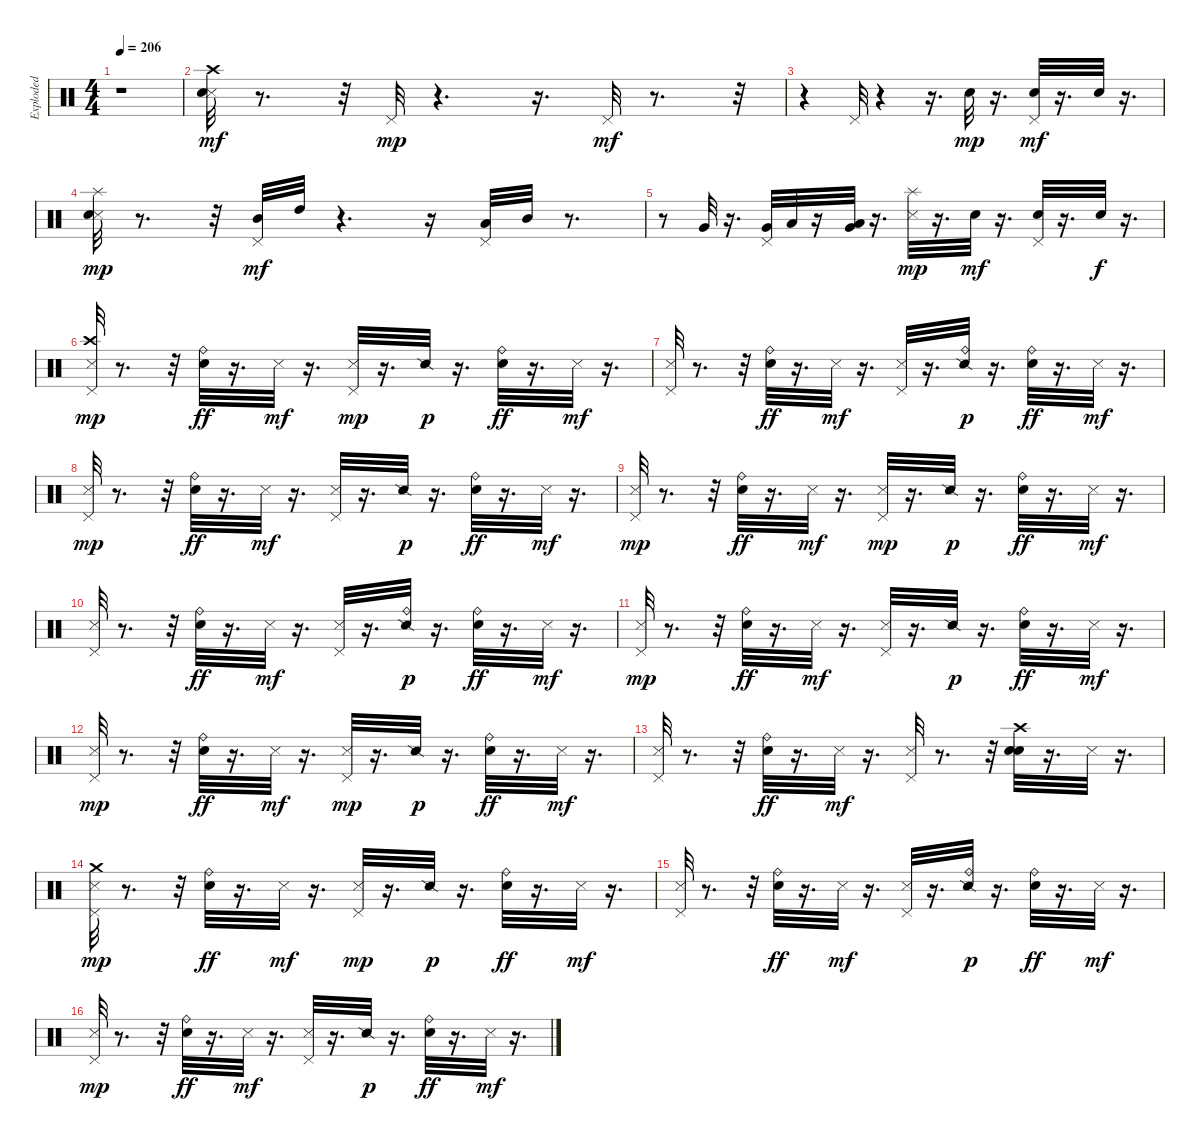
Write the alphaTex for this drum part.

\track ("Exploded" "Exploded") {instrument percussion}
\staff {score}
\articulation defaults
\ts (4 4)
\tempo 206
\clef neutral
\ks c
r.1{dy mf} |
("Metronome (hit)" "Electric Snare (hit)" "Crash high (hit)").32 r.8{d} r.32 "Pedal Hi-Hat (hit)".32{dy mp} r.4{d} r.16{d} "Pedal Hi-Hat (hit)".32{dy mf} r.8{d} r.32 |
r.4 "Pedal Hi-Hat (hit)".32 r.4 r.16{d} "Electric Snare (hit)".32{dy mp} r.16{d} ("Electric Snare (hit)" "Pedal Hi-Hat (hit)").32{dy mf} r.16{d} "Electric Snare (hit)".32 r.16{d} |
("Metronome (hit)" "Electric Snare (hit)" "Splash (hit)").32{dy mp} r.8{d} r.32 ("Pedal Hi-Hat (hit)" "Mid Tom (hit)").32{dy mf} "High Tom (hit)".32 r.4{d} r.16 ("Pedal Hi-Hat (hit)" "Low Tom (hit)").32 "Mid Tom (hit)".32 r.8{d} |
r.8 "Very Low Tom (hit)".32 r.16{d} ("Very Low Tom (hit)" "Pedal Hi-Hat (hit)").32 "Low Tom (hit)".32 r.16 ("Very Low Tom (hit)" "Low Tom (hit)").32 r.16{d} ("Metronome (hit)" "Splash (hit)").32{dy mp} r.16{d} "Electric Snare (hit)".32{dy mf} r.16{d} ("Electric Snare (hit)" "Pedal Hi-Hat (hit)").32 r.16{d} "Electric Snare (hit)".32{dy f} r.16{d} |
("Crash high (hit)" "Metronome (hit)" "Pedal Hi-Hat (hit)").32{dy mp} r.8{d} r.32 ("Electric Snare (hit)" "Ride (bell)").32{dy ff} r.16{d} "Metronome (hit)".32{dy mf} r.16{d} ("Metronome (hit)" "Pedal Hi-Hat (hit)").32{dy mp} r.16{d} "Snare (side stick) 2".32{dy p} r.16{d} ("Electric Snare (hit)" "Ride (bell)").32{dy ff} r.16{d} "Metronome (hit)".32{dy mf} r.16{d} |
("Metronome (hit)" "Pedal Hi-Hat (hit)").32 r.8{d} r.32 ("Electric Snare (hit)" "Ride (bell)").32{dy ff} r.16{d} "Metronome (hit)".32{dy mf} r.16{d} ("Metronome (hit)" "Pedal Hi-Hat (hit)").32 r.16{d} ("Snare (side stick) 2" "Ride (bell)").32{dy p} r.16{d} ("Electric Snare (hit)" "Ride (bell)").32{dy ff} r.16{d} "Metronome (hit)".32{dy mf} r.16{d} |
("Metronome (hit)" "Pedal Hi-Hat (hit)").32{dy mp} r.8{d} r.32 ("Electric Snare (hit)" "Ride (bell)").32{dy ff} r.16{d} "Metronome (hit)".32{dy mf} r.16{d} ("Metronome (hit)" "Pedal Hi-Hat (hit)").32 r.16{d} "Snare (side stick) 2".32{dy p} r.16{d} ("Electric Snare (hit)" "Ride (bell)").32{dy ff} r.16{d} "Metronome (hit)".32{dy mf} r.16{d} |
("Metronome (hit)" "Pedal Hi-Hat (hit)").32{dy mp} r.8{d} r.32 ("Electric Snare (hit)" "Ride (bell)").32{dy ff} r.16{d} "Metronome (hit)".32{dy mf} r.16{d} ("Metronome (hit)" "Pedal Hi-Hat (hit)").32{dy mp} r.16{d} "Snare (side stick) 2".32{dy p} r.16{d} ("Electric Snare (hit)" "Ride (bell)").32{dy ff} r.16{d} "Metronome (hit)".32{dy mf} r.16{d} |
("Metronome (hit)" "Pedal Hi-Hat (hit)").32 r.8{d} r.32 ("Electric Snare (hit)" "Ride (bell)").32{dy ff} r.16{d} "Metronome (hit)".32{dy mf} r.16{d} ("Metronome (hit)" "Pedal Hi-Hat (hit)").32 r.16{d} ("Snare (side stick) 2" "Ride (bell)").32{dy p} r.16{d} ("Electric Snare (hit)" "Ride (bell)").32{dy ff} r.16{d} "Metronome (hit)".32{dy mf} r.16{d} |
("Metronome (hit)" "Pedal Hi-Hat (hit)").32{dy mp} r.8{d} r.32 ("Electric Snare (hit)" "Ride (bell)").32{dy ff} r.16{d} "Metronome (hit)".32{dy mf} r.16{d} ("Metronome (hit)" "Pedal Hi-Hat (hit)").32 r.16{d} "Snare (side stick) 2".32{dy p} r.16{d} ("Electric Snare (hit)" "Ride (bell)").32{dy ff} r.16{d} "Metronome (hit)".32{dy mf} r.16{d} |
("Metronome (hit)" "Pedal Hi-Hat (hit)").32{dy mp} r.8{d} r.32 ("Electric Snare (hit)" "Ride (bell)").32{dy ff} r.16{d} "Metronome (hit)".32{dy mf} r.16{d} ("Metronome (hit)" "Pedal Hi-Hat (hit)").32{dy mp} r.16{d} "Snare (side stick) 2".32{dy p} r.16{d} ("Electric Snare (hit)" "Ride (bell)").32{dy ff} r.16{d} "Metronome (hit)".32{dy mf} r.16{d} |
("Metronome (hit)" "Pedal Hi-Hat (hit)").32 r.8{d} r.32 ("Electric Snare (hit)" "Ride (bell)").32{dy ff} r.16{d} "Metronome (hit)".32{dy mf} r.16{d} ("Metronome (hit)" "Pedal Hi-Hat (hit)").32 r.8{d} r.32 ("Metronome (bell)" "Electric Snare (hit)" "Crash high (hit)").32 r.16{d} "Metronome (hit)".32 r.16{d} |
("Crash medium (hit)" "Metronome (hit)" "Pedal Hi-Hat (hit)").32{dy mp} r.8{d} r.32 ("Electric Snare (hit)" "Ride (bell)").32{dy ff} r.16{d} "Metronome (hit)".32{dy mf} r.16{d} ("Metronome (hit)" "Pedal Hi-Hat (hit)").32{dy mp} r.16{d} "Snare (side stick) 2".32{dy p} r.16{d} ("Electric Snare (hit)" "Ride (bell)").32{dy ff} r.16{d} "Metronome (hit)".32{dy mf} r.16{d} |
("Metronome (hit)" "Pedal Hi-Hat (hit)").32 r.8{d} r.32 ("Electric Snare (hit)" "Ride (bell)").32{dy ff} r.16{d} "Metronome (hit)".32{dy mf} r.16{d} ("Metronome (hit)" "Pedal Hi-Hat (hit)").32 r.16{d} ("Snare (side stick) 2" "Ride (bell)").32{dy p} r.16{d} ("Electric Snare (hit)" "Ride (bell)").32{dy ff} r.16{d} "Metronome (hit)".32{dy mf} r.16{d} |
("Metronome (hit)" "Pedal Hi-Hat (hit)").32{dy mp} r.8{d} r.32 ("Electric Snare (hit)" "Ride (bell)").32{dy ff} r.16{d} "Metronome (hit)".32{dy mf} r.16{d} ("Metronome (hit)" "Pedal Hi-Hat (hit)").32 r.16{d} "Snare (side stick) 2".32{dy p} r.16{d} ("Electric Snare (hit)" "Ride (bell)").32{dy ff} r.16{d} "Metronome (hit)".32{dy mf} r.16{d}
